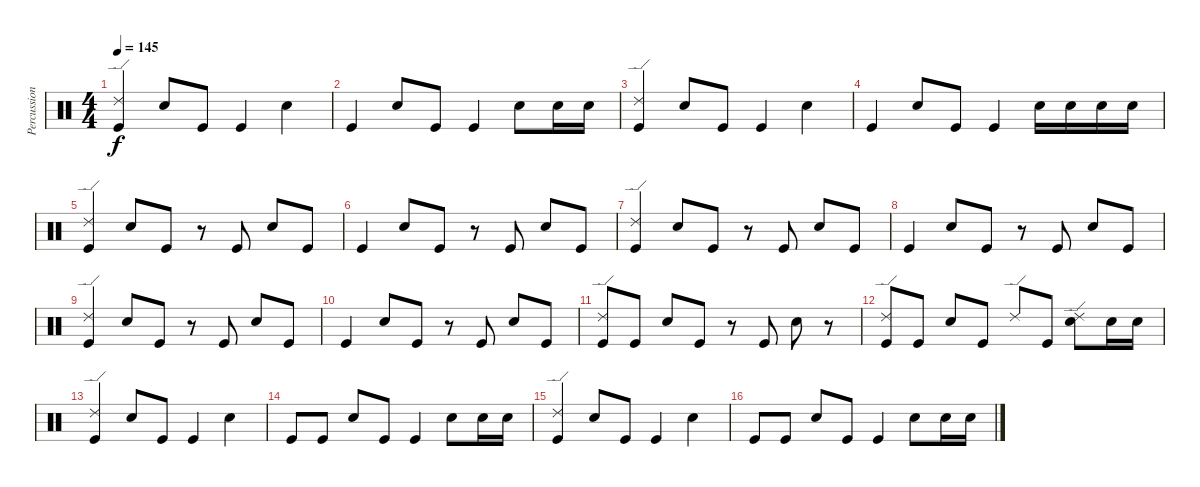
\track ("Percussion" "Percussion") {instrument percussion}
\staff {score}
\articulation defaults
\ts (4 4)
\tempo 145
\clef neutral
\ks c
("Ride (edge) 2" "Kick (hit)").4{dy f} "Snare (hit) 2".8 "Kick (hit)".8 "Kick (hit)".4 "Snare (hit) 2".4 |
"Kick (hit)".4 "Snare (hit) 2".8 "Kick (hit)".8 "Kick (hit)".4 "Snare (hit) 2".8 "Snare (hit) 2".16 "Snare (hit) 2".16 |
("Kick (hit)" "Ride (edge) 2").4 "Snare (hit) 2".8 "Kick (hit)".8 "Kick (hit)".4 "Snare (hit) 2".4 |
"Kick (hit)".4 "Snare (hit) 2".8 "Kick (hit)".8 "Kick (hit)".4 "Snare (hit) 2".16 "Snare (hit) 2".16 "Snare (hit) 2".16 "Snare (hit) 2".16 |
("Kick (hit)" "Ride (edge) 2").4 "Snare (hit) 2".8 "Kick (hit)".8 r.8 "Kick (hit)".8 "Snare (hit) 2".8 "Kick (hit)".8 |
"Kick (hit)".4 "Snare (hit) 2".8 "Kick (hit)".8 r.8 "Kick (hit)".8 "Snare (hit) 2".8 "Kick (hit)".8 |
("Kick (hit)" "Ride (edge) 2").4 "Snare (hit) 2".8 "Kick (hit)".8 r.8 "Kick (hit)".8 "Snare (hit) 2".8 "Kick (hit)".8 |
"Kick (hit)".4 "Snare (hit) 2".8 "Kick (hit)".8 r.8 "Kick (hit)".8 "Snare (hit) 2".8 "Kick (hit)".8 |
("Ride (edge) 2" "Kick (hit)").4 "Snare (hit) 2".8 "Kick (hit)".8 r.8 "Kick (hit)".8 "Snare (hit) 2".8 "Kick (hit)".8 |
"Kick (hit)".4 "Snare (hit) 2".8 "Kick (hit)".8 r.8 "Kick (hit)".8 "Snare (hit) 2".8 "Kick (hit)".8 |
("Ride (edge) 2" "Kick (hit)").8 "Kick (hit)".8 "Snare (hit) 2".8 "Kick (hit)".8 r.8 "Kick (hit)".8 "Snare (hit) 2".8 r.8 |
("Ride (edge) 2" "Kick (hit)").8 "Kick (hit)".8 "Snare (hit) 2".8 "Kick (hit)".8 "Ride (edge) 2".8 "Kick (hit)".8 ("Ride (edge) 2" "Snare (hit) 2").8 "Snare (hit) 2".16 "Snare (hit) 2".16 |
("Ride (edge) 2" "Kick (hit)").4 "Snare (hit) 2".8 "Kick (hit)".8 "Kick (hit)".4 "Snare (hit) 2".4 |
"Kick (hit)".8 "Kick (hit)".8 "Snare (hit) 2".8 "Kick (hit)".8 "Kick (hit)".4 "Snare (hit) 2".8 "Snare (hit) 2".16 "Snare (hit) 2".16 |
("Ride (edge) 2" "Kick (hit)").4 "Snare (hit) 2".8 "Kick (hit)".8 "Kick (hit)".4 "Snare (hit) 2".4 |
"Kick (hit)".8 "Kick (hit)".8 "Snare (hit) 2".8 "Kick (hit)".8 "Kick (hit)".4 "Snare (hit) 2".8 "Snare (hit) 2".16 "Snare (hit) 2".16
